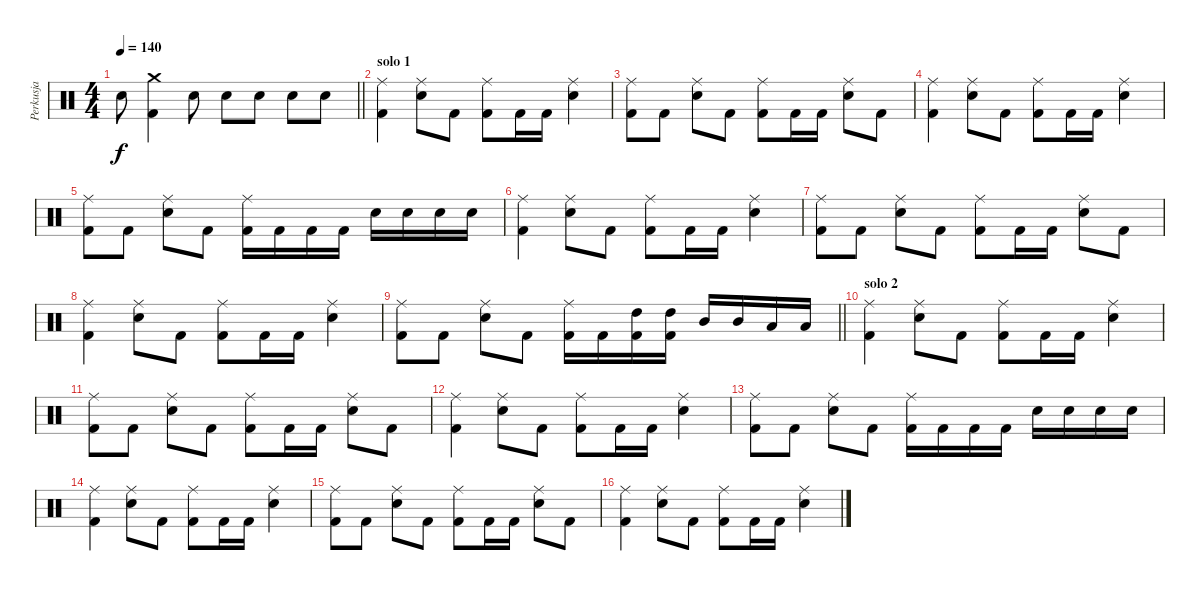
\track ("Perkusja" "Perkusja") {instrument percussion}
\staff {score}
\articulation defaults
\ts (4 4)
\tempo 140
\clef neutral
\barLineRight lightlight
\ks c "Snare (hit) 2".8{dy f}
("Kick (hit) 2" "Crash medium (hit)").4 "Snare (hit) 2".8 "Snare (hit) 2".8 "Snare (hit) 2".8 "Snare (hit) 2".8 "Snare (hit) 2".8 |
\section ("" "solo 1")
("Ride (middle)" "Kick (hit) 2").4 ("Ride (middle)" "Snare (hit) 2").8 "Kick (hit) 2".8 ("Ride (middle)" "Kick (hit) 2").8 "Kick (hit) 2".16 "Kick (hit) 2".16 ("Ride (middle)" "Snare (hit) 2").4 |
("Ride (middle)" "Kick (hit) 2").8 "Kick (hit) 2".8 ("Ride (middle)" "Snare (hit) 2").8 "Kick (hit) 2".8 ("Ride (middle)" "Kick (hit) 2").8 "Kick (hit) 2".16 "Kick (hit) 2".16 ("Ride (middle)" "Snare (hit) 2").8 "Kick (hit) 2".8 |
("Ride (middle)" "Kick (hit) 2").4 ("Ride (middle)" "Snare (hit) 2").8 "Kick (hit) 2".8 ("Ride (middle)" "Kick (hit) 2").8 "Kick (hit) 2".16 "Kick (hit) 2".16 ("Ride (middle)" "Snare (hit) 2").4 |
("Ride (middle)" "Kick (hit) 2").8 "Kick (hit) 2".8 ("Ride (middle)" "Snare (hit) 2").8 "Kick (hit) 2".8 ("Ride (middle)" "Kick (hit) 2").16 "Kick (hit) 2".16 "Kick (hit) 2".16 "Kick (hit) 2".16 "Snare (hit) 2".16 "Snare (hit) 2".16 "Snare (hit) 2".16 "Snare (hit) 2".16 |
("Ride (middle)" "Kick (hit) 2").4 ("Ride (middle)" "Snare (hit) 2").8 "Kick (hit) 2".8 ("Ride (middle)" "Kick (hit) 2").8 "Kick (hit) 2".16 "Kick (hit) 2".16 ("Ride (middle)" "Snare (hit) 2").4 |
("Ride (middle)" "Kick (hit) 2").8 "Kick (hit) 2".8 ("Ride (middle)" "Snare (hit) 2").8 "Kick (hit) 2".8 ("Ride (middle)" "Kick (hit) 2").8 "Kick (hit) 2".16 "Kick (hit) 2".16 ("Ride (middle)" "Snare (hit) 2").8 "Kick (hit) 2".8 |
("Ride (middle)" "Kick (hit) 2").4 ("Ride (middle)" "Snare (hit) 2").8 "Kick (hit) 2".8 ("Ride (middle)" "Kick (hit) 2").8 "Kick (hit) 2".16 "Kick (hit) 2".16 ("Ride (middle)" "Snare (hit) 2").4 |
\barLineRight lightlight
("Ride (middle)" "Kick (hit) 2").8 "Kick (hit) 2".8 ("Ride (middle)" "Snare (hit) 2").8 "Kick (hit) 2".8 ("Ride (middle)" "Kick (hit) 2").16 "Kick (hit) 2".16 ("High Tom (hit)" "Kick (hit) 2").16 ("High Tom (hit)" "Kick (hit) 2").16 "Mid Tom (hit)".16 "Mid Tom (hit)".16 "Low Tom (hit)".16 "Low Tom (hit)".16 |
\section ("" "solo 2")
("Ride (middle)" "Kick (hit) 2").4 ("Ride (middle)" "Snare (hit) 2").8 "Kick (hit) 2".8 ("Ride (middle)" "Kick (hit) 2").8 "Kick (hit) 2".16 "Kick (hit) 2".16 ("Ride (middle)" "Snare (hit) 2").4 |
("Ride (middle)" "Kick (hit) 2").8 "Kick (hit) 2".8 ("Ride (middle)" "Snare (hit) 2").8 "Kick (hit) 2".8 ("Ride (middle)" "Kick (hit) 2").8 "Kick (hit) 2".16 "Kick (hit) 2".16 ("Ride (middle)" "Snare (hit) 2").8 "Kick (hit) 2".8 |
("Ride (middle)" "Kick (hit) 2").4 ("Ride (middle)" "Snare (hit) 2").8 "Kick (hit) 2".8 ("Ride (middle)" "Kick (hit) 2").8 "Kick (hit) 2".16 "Kick (hit) 2".16 ("Ride (middle)" "Snare (hit) 2").4 |
("Ride (middle)" "Kick (hit) 2").8 "Kick (hit) 2".8 ("Ride (middle)" "Snare (hit) 2").8 "Kick (hit) 2".8 ("Ride (middle)" "Kick (hit) 2").16 "Kick (hit) 2".16 "Kick (hit) 2".16 "Kick (hit) 2".16 "Snare (hit) 2".16 "Snare (hit) 2".16 "Snare (hit) 2".16 "Snare (hit) 2".16 |
("Ride (middle)" "Kick (hit) 2").4 ("Ride (middle)" "Snare (hit) 2").8 "Kick (hit) 2".8 ("Ride (middle)" "Kick (hit) 2").8 "Kick (hit) 2".16 "Kick (hit) 2".16 ("Ride (middle)" "Snare (hit) 2").4 |
("Ride (middle)" "Kick (hit) 2").8 "Kick (hit) 2".8 ("Ride (middle)" "Snare (hit) 2").8 "Kick (hit) 2".8 ("Ride (middle)" "Kick (hit) 2").8 "Kick (hit) 2".16 "Kick (hit) 2".16 ("Ride (middle)" "Snare (hit) 2").8 "Kick (hit) 2".8 |
("Ride (middle)" "Kick (hit) 2").4 ("Ride (middle)" "Snare (hit) 2").8 "Kick (hit) 2".8 ("Ride (middle)" "Kick (hit) 2").8 "Kick (hit) 2".16 "Kick (hit) 2".16 ("Ride (middle)" "Snare (hit) 2").4
